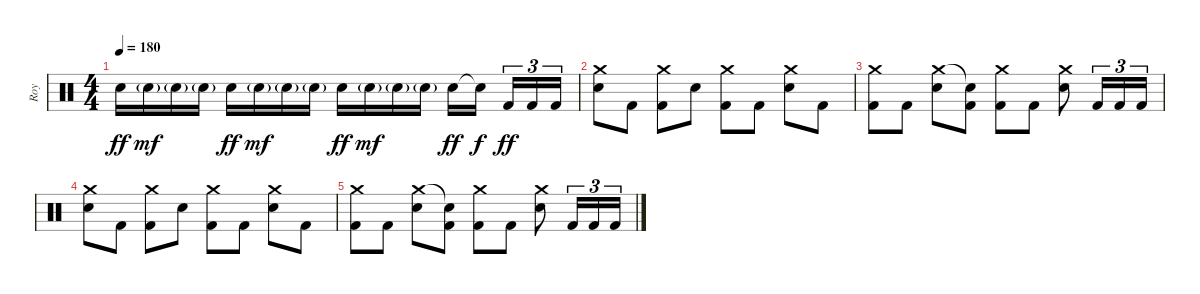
\track ("Roy" "Roy") {instrument percussion}
\staff {score}
\articulation defaults
\ts (4 4)
\tempo 180
\clef neutral
\ks c "Electric Snare (hit)".16{dy ff} "Electric Snare (hit)"{g}.16{dy mf} "Electric Snare (hit)"{g}.16 "Electric Snare (hit)"{g}.16 "Electric Snare (hit)".16{dy ff} "Electric Snare (hit)"{g}.16{dy mf} "Electric Snare (hit)"{g}.16 "Electric Snare (hit)"{g}.16 "Electric Snare (hit)".16{dy ff} "Electric Snare (hit)"{g}.16{dy mf} "Electric Snare (hit)"{g}.16 "Electric Snare (hit)"{g}.16 "Electric Snare (hit)".16{dy ff} "Electric Snare (hit)"{t}.16{dy f beam splitsecondary} "Kick (hit) 2".16{tu (3 2) dy ff} "Kick (hit) 2".16{tu (3 2)} "Kick (hit) 2".16{tu (3 2)}
|
("Crash medium (hit)" "Electric Snare (hit)").8 "Kick (hit) 2".8 ("Crash medium (hit)" "Kick (hit) 2").8 "Electric Snare (hit)".8 ("Crash medium (hit)" "Kick (hit) 2").8 "Kick (hit) 2".8 ("Crash medium (hit)" "Electric Snare (hit)").8 "Kick (hit) 2".8 |
("Crash medium (hit)" "Kick (hit) 2").8 "Kick (hit) 2".8 ("Crash medium (hit)" "Electric Snare (hit)").8 ("Snare (hit)"{t} "Kick (hit) 2").8 ("Crash medium (hit)" "Kick (hit) 2").8 "Kick (hit) 2".8 ("Crash medium (hit)" "Electric Snare (hit)").8 "Kick (hit) 2".16{tu (3 2)} "Kick (hit) 2".16{tu (3 2)} "Kick (hit) 2".16{tu (3 2)} |
("Crash medium (hit)" "Electric Snare (hit)").8 "Kick (hit) 2".8 ("Crash medium (hit)" "Kick (hit) 2").8 "Electric Snare (hit)".8 ("Crash medium (hit)" "Kick (hit) 2").8 "Kick (hit) 2".8 ("Crash medium (hit)" "Electric Snare (hit)").8 "Kick (hit) 2".8 |
("Crash medium (hit)" "Kick (hit) 2").8 "Kick (hit) 2".8 ("Crash medium (hit)" "Electric Snare (hit)").8 ("Snare (hit)"{t} "Kick (hit) 2").8 ("Crash medium (hit)" "Kick (hit) 2").8 "Kick (hit) 2".8 ("Crash medium (hit)" "Electric Snare (hit)").8 "Kick (hit) 2".16{tu (3 2)} "Kick (hit) 2".16{tu (3 2)} "Kick (hit) 2".16{tu (3 2)}
